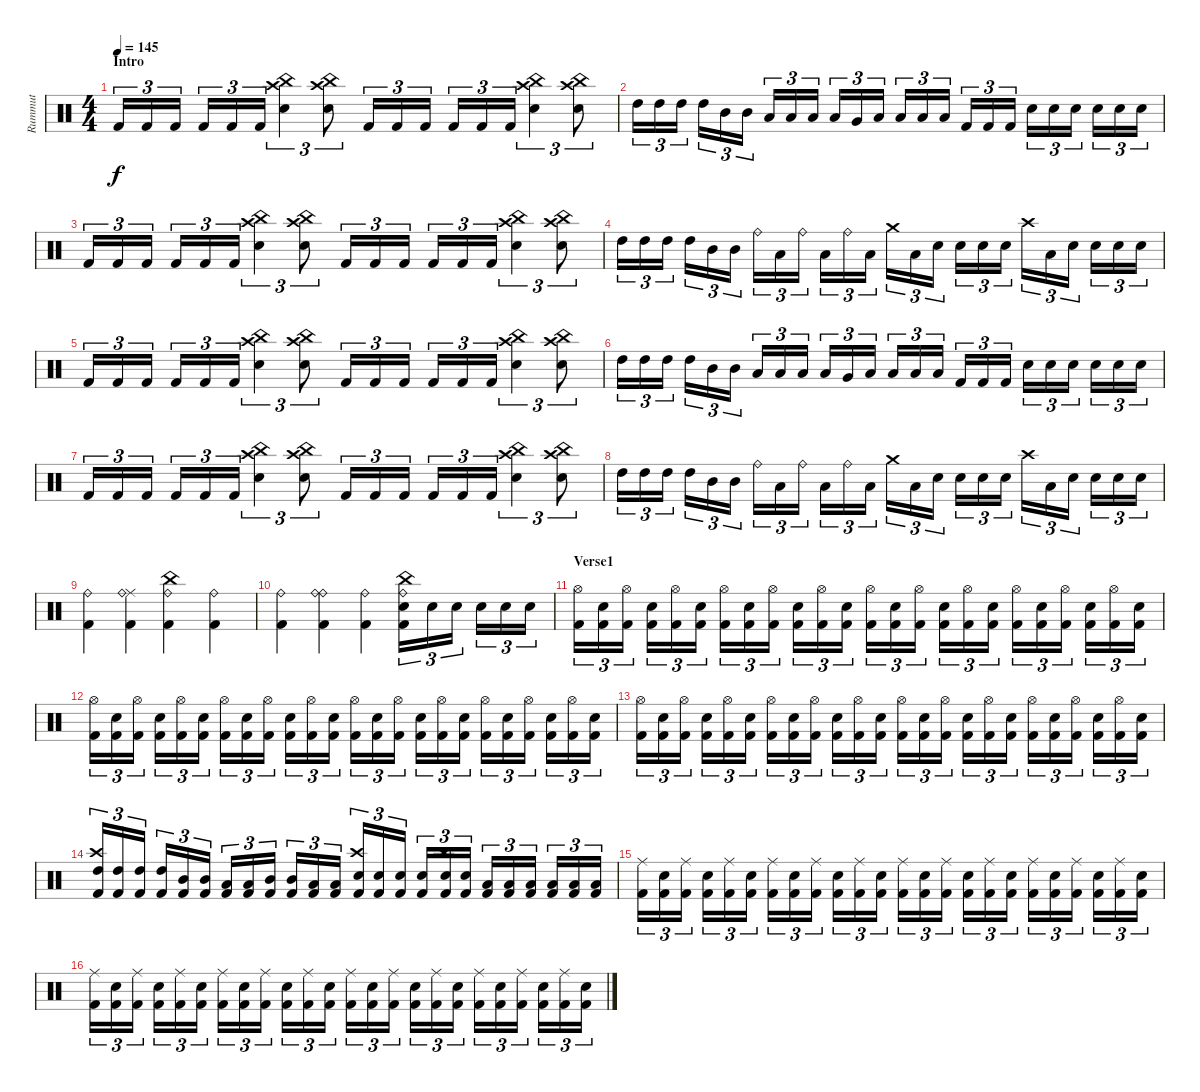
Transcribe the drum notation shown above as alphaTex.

\track ("Rummut" "Rummut") {instrument percussion}
\staff {score}
\articulation defaults
\ts (4 4)
\section ("" "Intro")
\tempo 145
\clef neutral
\ks c "Kick (hit) 2".16{tu (3 2) dy f} "Kick (hit) 2".16{tu (3 2)} "Kick (hit) 2".16{tu (3 2)} "Kick (hit) 2".16{tu (3 2)} "Kick (hit) 2".16{tu (3 2)} "Kick (hit) 2".16{tu (3 2)}
("Crash high (hit)" "China (hit)" "Snare (hit) 2").4{tu (3 2)} ("Crash high (hit)" "China (hit)" "Snare (hit) 2").8{tu (3 2)} "Kick (hit) 2".16{tu (3 2)} "Kick (hit) 2".16{tu (3 2)} "Kick (hit) 2".16{tu (3 2)} "Kick (hit) 2".16{tu (3 2)} "Kick (hit) 2".16{tu (3 2)} "Kick (hit) 2".16{tu (3 2)} ("Crash high (hit)" "China (hit)" "Snare (hit) 2").4{tu (3 2)} ("Crash high (hit)" "China (hit)" "Snare (hit) 2").8{tu (3 2)} |
"High Tom (hit)".16{tu (3 2)} "High Tom (hit)".16{tu (3 2)} "High Tom (hit)".16{tu (3 2)} "High Tom (hit)".16{tu (3 2)} "Mid Tom (hit)".16{tu (3 2)} "Mid Tom (hit)".16{tu (3 2)} "Low Tom (hit)".16{tu (3 2)} "Low Tom (hit)".16{tu (3 2)} "Low Tom (hit)".16{tu (3 2)} "Low Tom (hit)".16{tu (3 2)} "Very Low Tom (hit)".16{tu (3 2)} "Low Floor Tom (hit)".16{tu (3 2)} "Low Floor Tom (hit)".16{tu (3 2)} "Low Floor Tom (hit)".16{tu (3 2)} "Low Floor Tom (hit)".16{tu (3 2)} "Kick (hit) 2".16{tu (3 2)} "Kick (hit) 2".16{tu (3 2)} "Kick (hit) 2".16{tu (3 2)} "Electric Snare (hit)".16{tu (3 2)} "Electric Snare (hit)".16{tu (3 2)} "Electric Snare (hit)".16{tu (3 2)} "Electric Snare (hit)".16{tu (3 2)} "Electric Snare (hit)".16{tu (3 2)} "Electric Snare (hit)".16{tu (3 2)} |
"Kick (hit) 2".16{tu (3 2)} "Kick (hit) 2".16{tu (3 2)} "Kick (hit) 2".16{tu (3 2)} "Kick (hit) 2".16{tu (3 2)} "Kick (hit) 2".16{tu (3 2)} "Kick (hit) 2".16{tu (3 2)} ("Crash high (hit)" "China (hit)" "Snare (hit) 2").4{tu (3 2)} ("Crash high (hit)" "China (hit)" "Snare (hit) 2").8{tu (3 2)} "Kick (hit) 2".16{tu (3 2)} "Kick (hit) 2".16{tu (3 2)} "Kick (hit) 2".16{tu (3 2)} "Kick (hit) 2".16{tu (3 2)} "Kick (hit) 2".16{tu (3 2)} "Kick (hit) 2".16{tu (3 2)} ("Crash high (hit)" "China (hit)" "Snare (hit) 2").4{tu (3 2)} ("Crash high (hit)" "China (hit)" "Snare (hit) 2").8{tu (3 2)} |
"High Tom (hit)".16{tu (3 2)} "High Tom (hit)".16{tu (3 2)} "High Tom (hit)".16{tu (3 2)} "High Tom (hit)".16{tu (3 2)} "Mid Tom (hit)".16{tu (3 2)} "Mid Tom (hit)".16{tu (3 2)} "Ride (bell)".16{tu (3 2)} "Low Tom (hit)".16{tu (3 2)} "Ride (bell)".16{tu (3 2)} "Low Tom (hit)".16{tu (3 2)} "Ride (bell)".16{tu (3 2)} "Low Floor Tom (hit)".16{tu (3 2)} "Crash medium (hit)".16{tu (3 2)} "Low Floor Tom (hit)".16{tu (3 2)} "Electric Snare (hit)".16{tu (3 2)} "Electric Snare (hit)".16{tu (3 2)} "Electric Snare (hit)".16{tu (3 2)} "Electric Snare (hit)".16{tu (3 2)} "Crash high (hit)".16{tu (3 2)} "Low Floor Tom (hit)".16{tu (3 2)} "Electric Snare (hit)".16{tu (3 2)} "Electric Snare (hit)".16{tu (3 2)} "Electric Snare (hit)".16{tu (3 2)} "Electric Snare (hit)".16{tu (3 2)} |
"Kick (hit) 2".16{tu (3 2)} "Kick (hit) 2".16{tu (3 2)} "Kick (hit) 2".16{tu (3 2)} "Kick (hit) 2".16{tu (3 2)} "Kick (hit) 2".16{tu (3 2)} "Kick (hit) 2".16{tu (3 2)} ("Crash high (hit)" "China (hit)" "Snare (hit) 2").4{tu (3 2)} ("Crash high (hit)" "China (hit)" "Snare (hit) 2").8{tu (3 2)} "Kick (hit) 2".16{tu (3 2)} "Kick (hit) 2".16{tu (3 2)} "Kick (hit) 2".16{tu (3 2)} "Kick (hit) 2".16{tu (3 2)} "Kick (hit) 2".16{tu (3 2)} "Kick (hit) 2".16{tu (3 2)} ("Crash high (hit)" "China (hit)" "Snare (hit) 2").4{tu (3 2)} ("Crash high (hit)" "China (hit)" "Snare (hit) 2").8{tu (3 2)} |
"High Tom (hit)".16{tu (3 2)} "High Tom (hit)".16{tu (3 2)} "High Tom (hit)".16{tu (3 2)} "High Tom (hit)".16{tu (3 2)} "Mid Tom (hit)".16{tu (3 2)} "Mid Tom (hit)".16{tu (3 2)} "Low Tom (hit)".16{tu (3 2)} "Low Tom (hit)".16{tu (3 2)} "Low Tom (hit)".16{tu (3 2)} "Low Tom (hit)".16{tu (3 2)} "Very Low Tom (hit)".16{tu (3 2)} "Low Floor Tom (hit)".16{tu (3 2)} "Low Floor Tom (hit)".16{tu (3 2)} "Low Floor Tom (hit)".16{tu (3 2)} "Low Floor Tom (hit)".16{tu (3 2)} "Kick (hit) 2".16{tu (3 2)} "Kick (hit) 2".16{tu (3 2)} "Kick (hit) 2".16{tu (3 2)} "Electric Snare (hit)".16{tu (3 2)} "Electric Snare (hit)".16{tu (3 2)} "Electric Snare (hit)".16{tu (3 2)} "Electric Snare (hit)".16{tu (3 2)} "Electric Snare (hit)".16{tu (3 2)} "Electric Snare (hit)".16{tu (3 2)} |
"Kick (hit) 2".16{tu (3 2)} "Kick (hit) 2".16{tu (3 2)} "Kick (hit) 2".16{tu (3 2)} "Kick (hit) 2".16{tu (3 2)} "Kick (hit) 2".16{tu (3 2)} "Kick (hit) 2".16{tu (3 2)} ("Crash high (hit)" "China (hit)" "Snare (hit) 2").4{tu (3 2)} ("Crash high (hit)" "China (hit)" "Snare (hit) 2").8{tu (3 2)} "Kick (hit) 2".16{tu (3 2)} "Kick (hit) 2".16{tu (3 2)} "Kick (hit) 2".16{tu (3 2)} "Kick (hit) 2".16{tu (3 2)} "Kick (hit) 2".16{tu (3 2)} "Kick (hit) 2".16{tu (3 2)} ("Crash high (hit)" "China (hit)" "Snare (hit) 2").4{tu (3 2)} ("Crash high (hit)" "China (hit)" "Snare (hit) 2").8{tu (3 2)} |
"High Tom (hit)".16{tu (3 2)} "High Tom (hit)".16{tu (3 2)} "High Tom (hit)".16{tu (3 2)} "High Tom (hit)".16{tu (3 2)} "Mid Tom (hit)".16{tu (3 2)} "Mid Tom (hit)".16{tu (3 2)} "Ride (bell)".16{tu (3 2)} "Low Tom (hit)".16{tu (3 2)} "Ride (bell)".16{tu (3 2)} "Low Tom (hit)".16{tu (3 2)} "Ride (bell)".16{tu (3 2)} "Low Floor Tom (hit)".16{tu (3 2)} "Crash medium (hit)".16{tu (3 2)} "Low Floor Tom (hit)".16{tu (3 2)} "Electric Snare (hit)".16{tu (3 2)} "Electric Snare (hit)".16{tu (3 2)} "Electric Snare (hit)".16{tu (3 2)} "Electric Snare (hit)".16{tu (3 2)} "Crash high (hit)".16{tu (3 2)} "Low Floor Tom (hit)".16{tu (3 2)} "Electric Snare (hit)".16{tu (3 2)} "Electric Snare (hit)".16{tu (3 2)} "Electric Snare (hit)".16{tu (3 2)} "Electric Snare (hit)".16{tu (3 2)} |
("Ride (bell)" "Kick (hit) 2").4 ("Ride (middle)" "Ride (bell)" "Kick (hit) 2").4 ("Ride (bell)" "China (hit)" "Kick (hit) 2").4 ("Ride (bell)" "Kick (hit) 2").4 |
("Ride (bell)" "Kick (hit) 2").4 ("Ride (bell)" "Ride (bell)" "Kick (hit) 2").4 ("Ride (bell)" "Kick (hit) 2").4 ("Ride (bell)" "China (hit)" "Snare (hit) 2" "Kick (hit) 2").16{tu (3 2)} "Snare (hit) 2".16{tu (3 2)} "Snare (hit) 2".16{tu (3 2)} "Snare (hit) 2".16{tu (3 2)} "Snare (hit) 2".16{tu (3 2)} "Snare (hit) 2".16{tu (3 2)} |
\section ("" "Verse1")
("Hi-Hat (open)" "Kick (hit) 2").16{tu (3 2)} ("Snare (hit) 2" "Kick (hit) 2").16{tu (3 2)} ("Hi-Hat (open)" "Kick (hit) 2").16{tu (3 2)} ("Snare (hit) 2" "Kick (hit) 2").16{tu (3 2)} ("Hi-Hat (open)" "Kick (hit) 2").16{tu (3 2)} ("Snare (hit) 2" "Kick (hit) 2").16{tu (3 2)} ("Hi-Hat (open)" "Kick (hit) 2").16{tu (3 2)} ("Snare (hit) 2" "Kick (hit) 2").16{tu (3 2)} ("Hi-Hat (open)" "Kick (hit) 2").16{tu (3 2)} ("Snare (hit) 2" "Kick (hit) 2").16{tu (3 2)} ("Hi-Hat (open)" "Kick (hit) 2").16{tu (3 2)} ("Snare (hit) 2" "Kick (hit) 2").16{tu (3 2)} ("Hi-Hat (open)" "Kick (hit) 2").16{tu (3 2)} ("Snare (hit) 2" "Kick (hit) 2").16{tu (3 2)} ("Hi-Hat (open)" "Kick (hit) 2").16{tu (3 2)} ("Snare (hit) 2" "Kick (hit) 2").16{tu (3 2)} ("Hi-Hat (open)" "Kick (hit) 2").16{tu (3 2)} ("Snare (hit) 2" "Kick (hit) 2").16{tu (3 2)} ("Hi-Hat (open)" "Kick (hit) 2").16{tu (3 2)} ("Snare (hit) 2" "Kick (hit) 2").16{tu (3 2)} ("Hi-Hat (open)" "Kick (hit) 2").16{tu (3 2)} ("Snare (hit) 2" "Kick (hit) 2").16{tu (3 2)} ("Hi-Hat (open)" "Kick (hit) 2").16{tu (3 2)} ("Snare (hit) 2" "Kick (hit) 2").16{tu (3 2)} |
("Hi-Hat (open)" "Kick (hit) 2").16{tu (3 2)} ("Snare (hit) 2" "Kick (hit) 2").16{tu (3 2)} ("Hi-Hat (open)" "Kick (hit) 2").16{tu (3 2)} ("Snare (hit) 2" "Kick (hit) 2").16{tu (3 2)} ("Hi-Hat (open)" "Kick (hit) 2").16{tu (3 2)} ("Snare (hit) 2" "Kick (hit) 2").16{tu (3 2)} ("Hi-Hat (open)" "Kick (hit) 2").16{tu (3 2)} ("Snare (hit) 2" "Kick (hit) 2").16{tu (3 2)} ("Hi-Hat (open)" "Kick (hit) 2").16{tu (3 2)} ("Snare (hit) 2" "Kick (hit) 2").16{tu (3 2)} ("Hi-Hat (open)" "Kick (hit) 2").16{tu (3 2)} ("Snare (hit) 2" "Kick (hit) 2").16{tu (3 2)} ("Hi-Hat (open)" "Kick (hit) 2").16{tu (3 2)} ("Snare (hit) 2" "Kick (hit) 2").16{tu (3 2)} ("Hi-Hat (open)" "Kick (hit) 2").16{tu (3 2)} ("Snare (hit) 2" "Kick (hit) 2").16{tu (3 2)} ("Hi-Hat (open)" "Kick (hit) 2").16{tu (3 2)} ("Snare (hit) 2" "Kick (hit) 2").16{tu (3 2)} ("Hi-Hat (open)" "Kick (hit) 2").16{tu (3 2)} ("Snare (hit) 2" "Kick (hit) 2").16{tu (3 2)} ("Hi-Hat (open)" "Kick (hit) 2").16{tu (3 2)} ("Snare (hit) 2" "Kick (hit) 2").16{tu (3 2)} ("Hi-Hat (open)" "Kick (hit) 2").16{tu (3 2)} ("Snare (hit) 2" "Kick (hit) 2").16{tu (3 2)} |
("Hi-Hat (open)" "Kick (hit) 2").16{tu (3 2)} ("Snare (hit) 2" "Kick (hit) 2").16{tu (3 2)} ("Hi-Hat (open)" "Kick (hit) 2").16{tu (3 2)} ("Snare (hit) 2" "Kick (hit) 2").16{tu (3 2)} ("Hi-Hat (open)" "Kick (hit) 2").16{tu (3 2)} ("Snare (hit) 2" "Kick (hit) 2").16{tu (3 2)} ("Hi-Hat (open)" "Kick (hit) 2").16{tu (3 2)} ("Snare (hit) 2" "Kick (hit) 2").16{tu (3 2)} ("Hi-Hat (open)" "Kick (hit) 2").16{tu (3 2)} ("Snare (hit) 2" "Kick (hit) 2").16{tu (3 2)} ("Hi-Hat (open)" "Kick (hit) 2").16{tu (3 2)} ("Snare (hit) 2" "Kick (hit) 2").16{tu (3 2)} ("Hi-Hat (open)" "Kick (hit) 2").16{tu (3 2)} ("Snare (hit) 2" "Kick (hit) 2").16{tu (3 2)} ("Hi-Hat (open)" "Kick (hit) 2").16{tu (3 2)} ("Snare (hit) 2" "Kick (hit) 2").16{tu (3 2)} ("Hi-Hat (open)" "Kick (hit) 2").16{tu (3 2)} ("Snare (hit) 2" "Kick (hit) 2").16{tu (3 2)} ("Hi-Hat (open)" "Kick (hit) 2").16{tu (3 2)} ("Snare (hit) 2" "Kick (hit) 2").16{tu (3 2)} ("Hi-Hat (open)" "Kick (hit) 2").16{tu (3 2)} ("Snare (hit) 2" "Kick (hit) 2").16{tu (3 2)} ("Hi-Hat (open)" "Kick (hit) 2").16{tu (3 2)} ("Snare (hit) 2" "Kick (hit) 2").16{tu (3 2)} |
("Crash high (hit)" "High Tom (hit)" "Kick (hit) 2").16{tu (3 2)} ("High Tom (hit)" "Kick (hit) 2").16{tu (3 2)} ("High Tom (hit)" "Kick (hit) 2").16{tu (3 2)} ("High Tom (hit)" "Kick (hit) 2").16{tu (3 2)} ("Mid Tom (hit)" "Kick (hit) 2").16{tu (3 2)} ("Mid Tom (hit)" "Kick (hit) 2").16{tu (3 2)} ("Low Tom (hit)" "Kick (hit) 2").16{tu (3 2)} ("Low Tom (hit)" "Kick (hit) 2").16{tu (3 2)} ("Mid Tom (hit)" "Kick (hit) 2").16{tu (3 2)} ("Mid Tom (hit)" "Kick (hit) 2").16{tu (3 2)} ("Low Tom (hit)" "Kick (hit) 2").16{tu (3 2)} ("Low Tom (hit)" "Kick (hit) 2").16{tu (3 2)} ("Crash high (hit)" "Snare (hit) 2" "Kick (hit) 2").16{tu (3 2)} ("Snare (hit) 2" "Kick (hit) 2").16{tu (3 2)} ("Snare (hit) 2" "Kick (hit) 2").16{tu (3 2)} ("Snare (hit) 2" "Kick (hit) 2").16{tu (3 2)} ("Crash high (hit)" "Snare (hit) 2" "Kick (hit) 2").16{tu (3 2)} ("Snare (hit) 2" "Kick (hit) 2").16{tu (3 2)} ("Low Tom (hit)" "Kick (hit) 2").16{tu (3 2)} ("Low Tom (hit)" "Kick (hit) 2").16{tu (3 2)} ("Low Tom (hit)" "Kick (hit) 2").16{tu (3 2)} ("Low Tom (hit)" "Kick (hit) 2").16{tu (3 2)} ("Low Tom (hit)" "Kick (hit) 2").16{tu (3 2)} ("Low Tom (hit)" "Kick (hit) 2").16{tu (3 2)} |
("Ride (middle)" "Kick (hit) 2").16{tu (3 2)} ("Snare (hit) 2" "Kick (hit) 2").16{tu (3 2)} ("Ride (middle)" "Kick (hit) 2").16{tu (3 2)} ("Snare (hit) 2" "Kick (hit) 2").16{tu (3 2)} ("Ride (middle)" "Kick (hit) 2").16{tu (3 2)} ("Snare (hit) 2" "Kick (hit) 2").16{tu (3 2)} ("Ride (middle)" "Kick (hit) 2").16{tu (3 2)} ("Snare (hit) 2" "Kick (hit) 2").16{tu (3 2)} ("Ride (middle)" "Kick (hit) 2").16{tu (3 2)} ("Snare (hit) 2" "Kick (hit) 2").16{tu (3 2)} ("Ride (middle)" "Kick (hit) 2").16{tu (3 2)} ("Snare (hit) 2" "Kick (hit) 2").16{tu (3 2)} ("Ride (middle)" "Kick (hit) 2").16{tu (3 2)} ("Snare (hit) 2" "Kick (hit) 2").16{tu (3 2)} ("Ride (middle)" "Kick (hit) 2").16{tu (3 2)} ("Snare (hit) 2" "Kick (hit) 2").16{tu (3 2)} ("Ride (middle)" "Kick (hit) 2").16{tu (3 2)} ("Snare (hit) 2" "Kick (hit) 2").16{tu (3 2)} ("Ride (middle)" "Kick (hit) 2").16{tu (3 2)} ("Snare (hit) 2" "Kick (hit) 2").16{tu (3 2)} ("Ride (middle)" "Kick (hit) 2").16{tu (3 2)} ("Snare (hit) 2" "Kick (hit) 2").16{tu (3 2)} ("Ride (middle)" "Kick (hit) 2").16{tu (3 2)} ("Snare (hit) 2" "Kick (hit) 2").16{tu (3 2)} |
("Ride (middle)" "Kick (hit) 2").16{tu (3 2)} ("Snare (hit) 2" "Kick (hit) 2").16{tu (3 2)} ("Ride (middle)" "Kick (hit) 2").16{tu (3 2)} ("Snare (hit) 2" "Kick (hit) 2").16{tu (3 2)} ("Ride (middle)" "Kick (hit) 2").16{tu (3 2)} ("Snare (hit) 2" "Kick (hit) 2").16{tu (3 2)} ("Ride (middle)" "Kick (hit) 2").16{tu (3 2)} ("Snare (hit) 2" "Kick (hit) 2").16{tu (3 2)} ("Ride (middle)" "Kick (hit) 2").16{tu (3 2)} ("Snare (hit) 2" "Kick (hit) 2").16{tu (3 2)} ("Ride (middle)" "Kick (hit) 2").16{tu (3 2)} ("Snare (hit) 2" "Kick (hit) 2").16{tu (3 2)} ("Ride (middle)" "Kick (hit) 2").16{tu (3 2)} ("Snare (hit) 2" "Kick (hit) 2").16{tu (3 2)} ("Ride (middle)" "Kick (hit) 2").16{tu (3 2)} ("Snare (hit) 2" "Kick (hit) 2").16{tu (3 2)} ("Ride (middle)" "Kick (hit) 2").16{tu (3 2)} ("Snare (hit) 2" "Kick (hit) 2").16{tu (3 2)} ("Ride (middle)" "Kick (hit) 2").16{tu (3 2)} ("Snare (hit) 2" "Kick (hit) 2").16{tu (3 2)} ("Ride (middle)" "Kick (hit) 2").16{tu (3 2)} ("Snare (hit) 2" "Kick (hit) 2").16{tu (3 2)} ("Ride (middle)" "Kick (hit) 2").16{tu (3 2)} ("Snare (hit) 2" "Kick (hit) 2").16{tu (3 2)}
